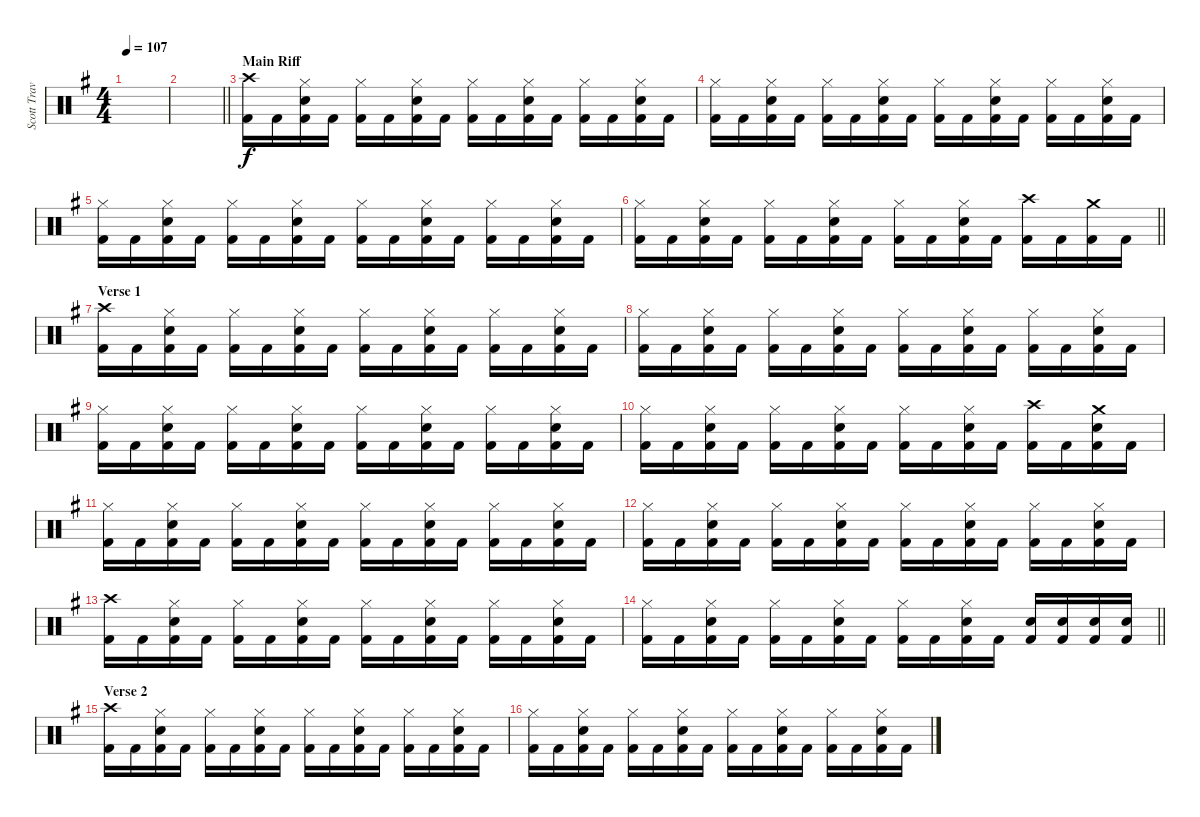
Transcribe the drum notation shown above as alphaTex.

\track ("Scott Travis" "Scott Trav") {instrument percussion}
\staff {score}
\articulation defaults
\ts (4 4)
\tempo 107
\clef neutral
\ks eminor
|
\barLineRight lightlight
|
\section ("" "Main Riff")
("Crash high (hit)" "Kick (hit) 2").16 "Kick (hit) 2".16 ("Hi-Hat (closed)" "Snare (hit) 2" "Kick (hit) 2").16 "Kick (hit) 2".16 ("Hi-Hat (closed)" "Kick (hit) 2").16 "Kick (hit) 2".16 ("Hi-Hat (closed)" "Snare (hit) 2" "Kick (hit) 2").16 "Kick (hit) 2".16 ("Hi-Hat (closed)" "Kick (hit) 2").16 "Kick (hit) 2".16 ("Hi-Hat (closed)" "Snare (hit) 2" "Kick (hit) 2").16 "Kick (hit) 2".16 ("Hi-Hat (closed)" "Kick (hit) 2").16 "Kick (hit) 2".16 ("Hi-Hat (closed)" "Snare (hit) 2" "Kick (hit) 2").16 "Kick (hit) 2".16 |
("Hi-Hat (closed)" "Kick (hit) 2").16 "Kick (hit) 2".16 ("Hi-Hat (closed)" "Snare (hit) 2" "Kick (hit) 2").16 "Kick (hit) 2".16 ("Hi-Hat (closed)" "Kick (hit) 2").16 "Kick (hit) 2".16 ("Hi-Hat (closed)" "Snare (hit) 2" "Kick (hit) 2").16 "Kick (hit) 2".16 ("Hi-Hat (closed)" "Kick (hit) 2").16 "Kick (hit) 2".16 ("Hi-Hat (closed)" "Snare (hit) 2" "Kick (hit) 2").16 "Kick (hit) 2".16 ("Hi-Hat (closed)" "Kick (hit) 2").16 "Kick (hit) 2".16 ("Hi-Hat (closed)" "Snare (hit) 2" "Kick (hit) 2").16 "Kick (hit) 2".16 |
("Hi-Hat (closed)" "Kick (hit) 2").16 "Kick (hit) 2".16 ("Hi-Hat (closed)" "Snare (hit) 2" "Kick (hit) 2").16 "Kick (hit) 2".16 ("Hi-Hat (closed)" "Kick (hit) 2").16 "Kick (hit) 2".16 ("Hi-Hat (closed)" "Snare (hit) 2" "Kick (hit) 2").16 "Kick (hit) 2".16 ("Hi-Hat (closed)" "Kick (hit) 2").16 "Kick (hit) 2".16 ("Hi-Hat (closed)" "Snare (hit) 2" "Kick (hit) 2").16 "Kick (hit) 2".16 ("Hi-Hat (closed)" "Kick (hit) 2").16 "Kick (hit) 2".16 ("Hi-Hat (closed)" "Snare (hit) 2" "Kick (hit) 2").16 "Kick (hit) 2".16 |
\barLineRight lightlight
("Hi-Hat (closed)" "Kick (hit) 2").16 "Kick (hit) 2".16 ("Hi-Hat (closed)" "Snare (hit) 2" "Kick (hit) 2").16 "Kick (hit) 2".16 ("Hi-Hat (closed)" "Kick (hit) 2").16 "Kick (hit) 2".16 ("Hi-Hat (closed)" "Snare (hit) 2" "Kick (hit) 2").16 "Kick (hit) 2".16 ("Hi-Hat (closed)" "Kick (hit) 2").16 "Kick (hit) 2".16 ("Hi-Hat (closed)" "Snare (hit) 2" "Kick (hit) 2").16 "Kick (hit) 2".16 ("Crash high (hit)" "Kick (hit) 2").16 "Kick (hit) 2".16 ("Crash medium (hit)" "Kick (hit) 2").16 "Kick (hit) 2".16 |
\section ("" "Verse 1")
("Crash high (hit)" "Kick (hit) 2").16 "Kick (hit) 2".16 ("Hi-Hat (closed)" "Snare (hit) 2" "Kick (hit) 2").16 "Kick (hit) 2".16 ("Hi-Hat (closed)" "Kick (hit) 2").16 "Kick (hit) 2".16 ("Hi-Hat (closed)" "Snare (hit) 2" "Kick (hit) 2").16 "Kick (hit) 2".16 ("Hi-Hat (closed)" "Kick (hit) 2").16 "Kick (hit) 2".16 ("Hi-Hat (closed)" "Snare (hit) 2" "Kick (hit) 2").16 "Kick (hit) 2".16 ("Hi-Hat (closed)" "Kick (hit) 2").16 "Kick (hit) 2".16 ("Hi-Hat (closed)" "Snare (hit) 2" "Kick (hit) 2").16 "Kick (hit) 2".16 |
("Hi-Hat (closed)" "Kick (hit) 2").16 "Kick (hit) 2".16 ("Hi-Hat (closed)" "Snare (hit) 2" "Kick (hit) 2").16 "Kick (hit) 2".16 ("Hi-Hat (closed)" "Kick (hit) 2").16 "Kick (hit) 2".16 ("Hi-Hat (closed)" "Snare (hit) 2" "Kick (hit) 2").16 "Kick (hit) 2".16 ("Hi-Hat (closed)" "Kick (hit) 2").16 "Kick (hit) 2".16 ("Hi-Hat (closed)" "Snare (hit) 2" "Kick (hit) 2").16 "Kick (hit) 2".16 ("Hi-Hat (closed)" "Kick (hit) 2").16 "Kick (hit) 2".16 ("Hi-Hat (closed)" "Snare (hit) 2" "Kick (hit) 2").16 "Kick (hit) 2".16 |
("Hi-Hat (closed)" "Kick (hit) 2").16 "Kick (hit) 2".16 ("Hi-Hat (closed)" "Snare (hit) 2" "Kick (hit) 2").16 "Kick (hit) 2".16 ("Hi-Hat (closed)" "Kick (hit) 2").16 "Kick (hit) 2".16 ("Hi-Hat (closed)" "Snare (hit) 2" "Kick (hit) 2").16 "Kick (hit) 2".16 ("Hi-Hat (closed)" "Kick (hit) 2").16 "Kick (hit) 2".16 ("Hi-Hat (closed)" "Snare (hit) 2" "Kick (hit) 2").16 "Kick (hit) 2".16 ("Hi-Hat (closed)" "Kick (hit) 2").16 "Kick (hit) 2".16 ("Hi-Hat (closed)" "Snare (hit) 2" "Kick (hit) 2").16 "Kick (hit) 2".16 |
("Hi-Hat (closed)" "Kick (hit) 2").16 "Kick (hit) 2".16 ("Hi-Hat (closed)" "Snare (hit) 2" "Kick (hit) 2").16 "Kick (hit) 2".16 ("Hi-Hat (closed)" "Kick (hit) 2").16 "Kick (hit) 2".16 ("Hi-Hat (closed)" "Snare (hit) 2" "Kick (hit) 2").16 "Kick (hit) 2".16 ("Hi-Hat (closed)" "Kick (hit) 2").16 "Kick (hit) 2".16 ("Hi-Hat (closed)" "Snare (hit) 2" "Kick (hit) 2").16 "Kick (hit) 2".16 ("Crash high (hit)" "Kick (hit) 2").16 "Kick (hit) 2".16 ("Crash medium (hit)" "Snare (hit) 2" "Kick (hit) 2").16 "Kick (hit) 2".16 |
("Hi-Hat (closed)" "Kick (hit) 2").16 "Kick (hit) 2".16 ("Hi-Hat (closed)" "Snare (hit) 2" "Kick (hit) 2").16 "Kick (hit) 2".16 ("Hi-Hat (closed)" "Kick (hit) 2").16 "Kick (hit) 2".16 ("Hi-Hat (closed)" "Snare (hit) 2" "Kick (hit) 2").16 "Kick (hit) 2".16 ("Hi-Hat (closed)" "Kick (hit) 2").16 "Kick (hit) 2".16 ("Hi-Hat (closed)" "Snare (hit) 2" "Kick (hit) 2").16 "Kick (hit) 2".16 ("Hi-Hat (closed)" "Kick (hit) 2").16 "Kick (hit) 2".16 ("Hi-Hat (closed)" "Snare (hit) 2" "Kick (hit) 2").16 "Kick (hit) 2".16 |
("Hi-Hat (closed)" "Kick (hit) 2").16 "Kick (hit) 2".16 ("Hi-Hat (closed)" "Snare (hit) 2" "Kick (hit) 2").16 "Kick (hit) 2".16 ("Hi-Hat (closed)" "Kick (hit) 2").16 "Kick (hit) 2".16 ("Hi-Hat (closed)" "Snare (hit) 2" "Kick (hit) 2").16 "Kick (hit) 2".16 ("Hi-Hat (closed)" "Kick (hit) 2").16 "Kick (hit) 2".16 ("Hi-Hat (closed)" "Snare (hit) 2" "Kick (hit) 2").16 "Kick (hit) 2".16 ("Hi-Hat (closed)" "Kick (hit) 2").16 "Kick (hit) 2".16 ("Hi-Hat (closed)" "Snare (hit) 2" "Kick (hit) 2").16 "Kick (hit) 2".16 |
("Crash high (hit)" "Kick (hit) 2").16 "Kick (hit) 2".16 ("Hi-Hat (closed)" "Snare (hit) 2" "Kick (hit) 2").16 "Kick (hit) 2".16 ("Hi-Hat (closed)" "Kick (hit) 2").16 "Kick (hit) 2".16 ("Hi-Hat (closed)" "Snare (hit) 2" "Kick (hit) 2").16 "Kick (hit) 2".16 ("Hi-Hat (closed)" "Kick (hit) 2").16 "Kick (hit) 2".16 ("Hi-Hat (closed)" "Snare (hit) 2" "Kick (hit) 2").16 "Kick (hit) 2".16 ("Hi-Hat (closed)" "Kick (hit) 2").16 "Kick (hit) 2".16 ("Hi-Hat (closed)" "Snare (hit) 2" "Kick (hit) 2").16 "Kick (hit) 2".16 |
\barLineRight lightlight
("Hi-Hat (closed)" "Kick (hit) 2").16 "Kick (hit) 2".16 ("Hi-Hat (closed)" "Snare (hit) 2" "Kick (hit) 2").16 "Kick (hit) 2".16 ("Hi-Hat (closed)" "Kick (hit) 2").16 "Kick (hit) 2".16 ("Hi-Hat (closed)" "Snare (hit) 2" "Kick (hit) 2").16 "Kick (hit) 2".16 ("Hi-Hat (closed)" "Kick (hit) 2").16 "Kick (hit) 2".16 ("Hi-Hat (closed)" "Snare (hit) 2" "Kick (hit) 2").16 "Kick (hit) 2".16 ("Snare (hit) 2" "Kick (hit) 2").16 ("Snare (hit) 2" "Kick (hit) 2").16 ("Snare (hit) 2" "Kick (hit) 2").16 ("Snare (hit) 2" "Kick (hit) 2").16 |
\section ("" "Verse 2")
("Crash high (hit)" "Kick (hit) 2").16 "Kick (hit) 2".16 ("Hi-Hat (closed)" "Snare (hit) 2" "Kick (hit) 2").16 "Kick (hit) 2".16 ("Hi-Hat (closed)" "Kick (hit) 2").16 "Kick (hit) 2".16 ("Hi-Hat (closed)" "Snare (hit) 2" "Kick (hit) 2").16 "Kick (hit) 2".16 ("Hi-Hat (closed)" "Kick (hit) 2").16 "Kick (hit) 2".16 ("Hi-Hat (closed)" "Snare (hit) 2" "Kick (hit) 2").16 "Kick (hit) 2".16 ("Hi-Hat (closed)" "Kick (hit) 2").16 "Kick (hit) 2".16 ("Hi-Hat (closed)" "Snare (hit) 2" "Kick (hit) 2").16 "Kick (hit) 2".16 |
("Hi-Hat (closed)" "Kick (hit) 2").16 "Kick (hit) 2".16 ("Hi-Hat (closed)" "Snare (hit) 2" "Kick (hit) 2").16 "Kick (hit) 2".16 ("Hi-Hat (closed)" "Kick (hit) 2").16 "Kick (hit) 2".16 ("Hi-Hat (closed)" "Snare (hit) 2" "Kick (hit) 2").16 "Kick (hit) 2".16 ("Hi-Hat (closed)" "Kick (hit) 2").16 "Kick (hit) 2".16 ("Hi-Hat (closed)" "Snare (hit) 2" "Kick (hit) 2").16 "Kick (hit) 2".16 ("Hi-Hat (closed)" "Kick (hit) 2").16 "Kick (hit) 2".16 ("Hi-Hat (closed)" "Snare (hit) 2" "Kick (hit) 2").16 "Kick (hit) 2".16
